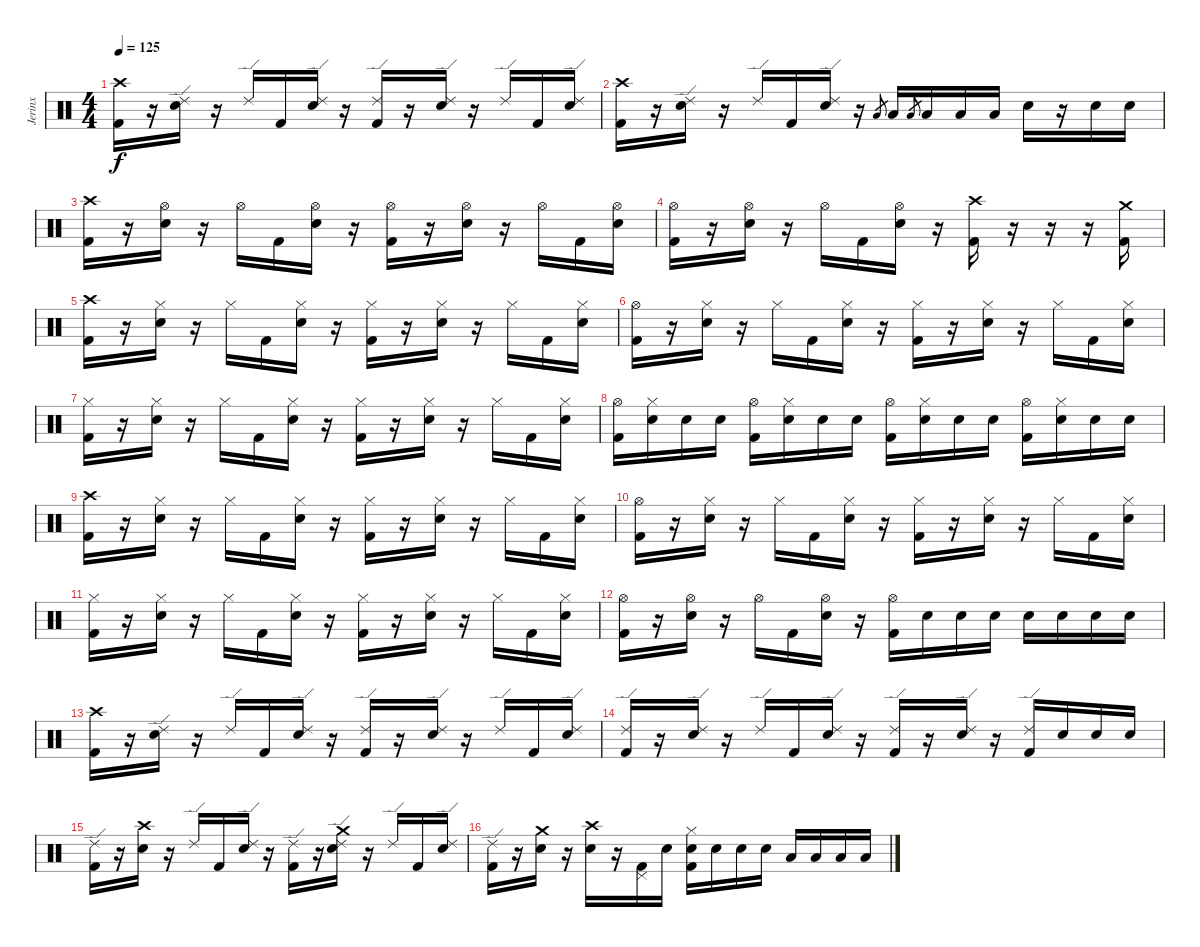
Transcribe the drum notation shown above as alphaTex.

\track ("Jerinx" "Jerinx") {instrument percussion}
\staff {score}
\articulation defaults
\ts (4 4)
\tempo 125
\clef neutral
\ks c
("Kick (hit) 2" "Crash high (hit)").16{dy f} r.16 ("Electric Snare (hit)" "Ride (edge) 2").16 r.16 "Ride (edge) 2".16 "Kick (hit) 2".16 ("Electric Snare (hit)" "Ride (edge) 2").16 r.16 ("Kick (hit) 2" "Ride (edge) 2").16 r.16 ("Electric Snare (hit)" "Ride (edge) 2").16 r.16 "Ride (edge) 2".16 "Kick (hit) 2".16 ("Electric Snare (hit)" "Ride (edge) 2").16 |
("Kick (hit) 2" "Crash high (hit)").16 r.16 ("Electric Snare (hit)" "Ride (edge) 2").16 r.16 "Ride (edge) 2".16 "Kick (hit) 2".16 ("Electric Snare (hit)" "Ride (edge) 2").16 r.16 "Low Tom (hit)".8{gr} "Low Tom (hit)".16 "Low Tom (hit)".8{gr} "Low Tom (hit)".16 "Low Floor Tom (hit)".16 "Low Floor Tom (hit)".16 "Electric Snare (hit)".16 r.16 "Electric Snare (hit)".16 "Electric Snare (hit)".16 |
("Kick (hit) 2" "Crash high (hit)").16 r.16 ("Electric Snare (hit)" "Hi-Hat (open)").16 r.16 "Hi-Hat (open)".16 "Kick (hit) 2".16 ("Electric Snare (hit)" "Hi-Hat (open)").16 r.16 ("Kick (hit) 2" "Hi-Hat (open)").16 r.16 ("Electric Snare (hit)" "Hi-Hat (open)").16 r.16 "Hi-Hat (open)".16 "Kick (hit) 2".16 ("Electric Snare (hit)" "Hi-Hat (open)").16 |
("Kick (hit) 2" "Hi-Hat (open)").16 r.16 ("Electric Snare (hit)" "Hi-Hat (open)").16 r.16 "Hi-Hat (open)".16 "Kick (hit) 2".16 ("Electric Snare (hit)" "Hi-Hat (open)").16 r.16 ("Kick (hit) 2" "Crash high (hit)").16 r.16 r.16 r.16 ("Kick (hit) 2" "Crash medium (hit)").16 |
("Kick (hit) 2" "Crash high (hit)").16 r.16 ("Electric Snare (hit)" "Hi-Hat (closed)").16 r.16 "Hi-Hat (closed)".16 "Kick (hit) 2".16 ("Electric Snare (hit)" "Hi-Hat (closed)").16 r.16 ("Kick (hit) 2" "Hi-Hat (closed)").16 r.16 ("Electric Snare (hit)" "Hi-Hat (closed)").16 r.16 "Hi-Hat (closed)".16 "Kick (hit) 2".16 ("Electric Snare (hit)" "Hi-Hat (closed)").16 |
("Kick (hit) 2" "Hi-Hat (open)").16 r.16 ("Electric Snare (hit)" "Hi-Hat (closed)").16 r.16 "Hi-Hat (closed)".16 "Kick (hit) 2".16 ("Electric Snare (hit)" "Hi-Hat (closed)").16 r.16 ("Kick (hit) 2" "Hi-Hat (closed)").16 r.16 ("Electric Snare (hit)" "Hi-Hat (closed)").16 r.16 "Hi-Hat (closed)".16 "Kick (hit) 2".16 ("Electric Snare (hit)" "Hi-Hat (closed)").16 |
("Kick (hit) 2" "Hi-Hat (closed)").16 r.16 ("Electric Snare (hit)" "Hi-Hat (closed)").16 r.16 "Hi-Hat (closed)".16 "Kick (hit) 2".16 ("Electric Snare (hit)" "Hi-Hat (closed)").16 r.16 ("Kick (hit) 2" "Hi-Hat (closed)").16 r.16 ("Electric Snare (hit)" "Hi-Hat (closed)").16 r.16 "Hi-Hat (closed)".16 "Kick (hit) 2".16 ("Electric Snare (hit)" "Hi-Hat (closed)").16 |
("Kick (hit) 2" "Hi-Hat (open)").16 ("Electric Snare (hit)" "Hi-Hat (closed)").16 "Electric Snare (hit)".16 "Electric Snare (hit)".16 ("Kick (hit) 2" "Hi-Hat (open)").16 ("Electric Snare (hit)" "Hi-Hat (closed)").16 "Electric Snare (hit)".16 "Electric Snare (hit)".16 ("Kick (hit) 2" "Hi-Hat (open)").16 ("Electric Snare (hit)" "Hi-Hat (closed)").16 "Electric Snare (hit)".16 "Electric Snare (hit)".16 ("Kick (hit) 2" "Hi-Hat (open)").16 ("Electric Snare (hit)" "Hi-Hat (closed)").16 "Electric Snare (hit)".16 "Electric Snare (hit)".16 |
("Kick (hit) 2" "Crash high (hit)").16 r.16 ("Electric Snare (hit)" "Hi-Hat (closed)").16 r.16 "Hi-Hat (closed)".16 "Kick (hit) 2".16 ("Electric Snare (hit)" "Hi-Hat (closed)").16 r.16 ("Kick (hit) 2" "Hi-Hat (closed)").16 r.16 ("Electric Snare (hit)" "Hi-Hat (closed)").16 r.16 "Hi-Hat (closed)".16 "Kick (hit) 2".16 ("Electric Snare (hit)" "Hi-Hat (closed)").16 |
("Kick (hit) 2" "Hi-Hat (open)").16 r.16 ("Electric Snare (hit)" "Hi-Hat (closed)").16 r.16 "Hi-Hat (closed)".16 "Kick (hit) 2".16 ("Electric Snare (hit)" "Hi-Hat (closed)").16 r.16 ("Kick (hit) 2" "Hi-Hat (closed)").16 r.16 ("Electric Snare (hit)" "Hi-Hat (closed)").16 r.16 "Hi-Hat (closed)".16 "Kick (hit) 2".16 ("Electric Snare (hit)" "Hi-Hat (closed)").16 |
("Kick (hit) 2" "Hi-Hat (closed)").16 r.16 ("Electric Snare (hit)" "Hi-Hat (closed)").16 r.16 "Hi-Hat (closed)".16 "Kick (hit) 2".16 ("Electric Snare (hit)" "Hi-Hat (closed)").16 r.16 ("Kick (hit) 2" "Hi-Hat (closed)").16 r.16 ("Electric Snare (hit)" "Hi-Hat (closed)").16 r.16 "Hi-Hat (closed)".16 "Kick (hit) 2".16 ("Electric Snare (hit)" "Hi-Hat (closed)").16 |
("Kick (hit) 2" "Hi-Hat (open)").16 r.16 ("Electric Snare (hit)" "Hi-Hat (open)").16 r.16 "Hi-Hat (open)".16 "Kick (hit) 2".16 ("Electric Snare (hit)" "Hi-Hat (open)").16 r.16 ("Kick (hit) 2" "Hi-Hat (open)").16 "Electric Snare (hit)".16 "Electric Snare (hit)".16 "Electric Snare (hit)".16 "Electric Snare (hit)".16 "Electric Snare (hit)".16 "Electric Snare (hit)".16 "Electric Snare (hit)".16 |
("Kick (hit) 2" "Crash high (hit)").16 r.16 ("Electric Snare (hit)" "Ride (edge) 2").16 r.16 "Ride (edge) 2".16 "Kick (hit) 2".16 ("Electric Snare (hit)" "Ride (edge) 2").16 r.16 ("Kick (hit) 2" "Ride (edge) 2").16 r.16 ("Electric Snare (hit)" "Ride (edge) 2").16 r.16 "Ride (edge) 2".16 "Kick (hit) 2".16 ("Electric Snare (hit)" "Ride (edge) 2").16 |
("Kick (hit) 2" "Ride (edge) 2").16 r.16 ("Electric Snare (hit)" "Ride (edge) 2").16 r.16 "Ride (edge) 2".16 "Kick (hit) 2".16 ("Electric Snare (hit)" "Ride (edge) 2").16 r.16 ("Kick (hit) 2" "Ride (edge) 2").16 r.16 ("Electric Snare (hit)" "Ride (edge) 2").16 r.16 ("Kick (hit) 2" "Ride (edge) 2").16 "Electric Snare (hit)".16 "Electric Snare (hit)".16 "Electric Snare (hit)".16 |
("Kick (hit) 2" "Ride (edge) 2").16 r.16 ("Electric Snare (hit)" "Crash high (hit)").16 r.16 "Ride (edge) 2".16 "Kick (hit) 2".16 ("Electric Snare (hit)" "Ride (edge) 2").16 r.16 ("Kick (hit) 2" "Ride (edge) 2").16 r.16 ("Electric Snare (hit)" "Ride (edge) 2" "Crash medium (hit)").16 r.16 "Ride (edge) 2".16 "Kick (hit) 2".16 ("Electric Snare (hit)" "Ride (edge) 2").16 |
("Kick (hit) 2" "Ride (edge) 2").16 r.16 ("Electric Snare (hit)" "Crash medium (hit)").16 r.16 ("Electric Snare (hit)" "Crash high (hit)").16 r.16 ("Kick (hit) 2" "Pedal Hi-Hat (hit)").16 "Electric Snare (hit)".16 ("Kick (hit) 2" "Electric Snare (hit)" "Hi-Hat (closed)").16 "Electric Snare (hit)".16 "Electric Snare (hit)".16 "Electric Snare (hit)".16 "Low Tom (hit)".16 "Low Tom (hit)".16 "Low Floor Tom (hit)".16 "Low Floor Tom (hit)".16
